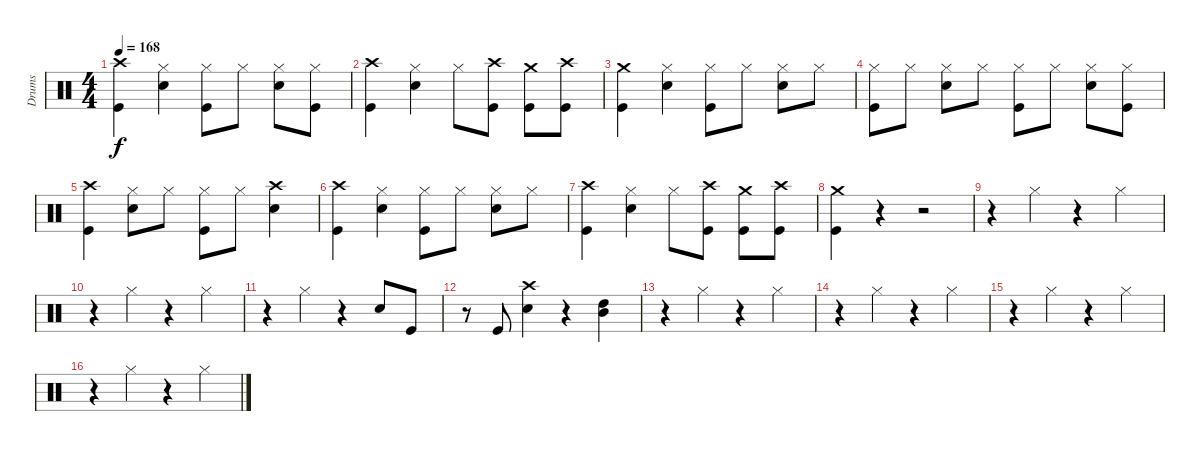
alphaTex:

\track ("Drums" "Drums") {instrument percussion}
\staff {score}
\articulation defaults
\ts (4 4)
\tempo 168
\clef neutral
\ks c
("Crash high (hit)" "Kick (hit)").4{dy f} ("Hi-Hat (closed)" "Electric Snare (hit)").4 ("Hi-Hat (closed)" "Kick (hit)").8 "Hi-Hat (closed)".8 ("Hi-Hat (closed)" "Electric Snare (hit)").8 ("Hi-Hat (closed)" "Kick (hit)").8 |
("Crash high (hit)" "Kick (hit)").4 ("Hi-Hat (closed)" "Electric Snare (hit)").4 "Hi-Hat (closed)".8 ("Crash high (hit)" "Kick (hit)").8 ("Crash medium (hit)" "Kick (hit)").8 ("Crash high (hit)" "Kick (hit)").8 |
("Crash medium (hit)" "Kick (hit)").4 ("Hi-Hat (closed)" "Electric Snare (hit)").4 ("Hi-Hat (closed)" "Kick (hit)").8 "Hi-Hat (closed)".8 ("Hi-Hat (closed)" "Electric Snare (hit)").8 "Hi-Hat (closed)".8 |
("Hi-Hat (closed)" "Kick (hit)").8 "Hi-Hat (closed)".8 ("Hi-Hat (closed)" "Electric Snare (hit)").8 "Hi-Hat (closed)".8 ("Hi-Hat (closed)" "Kick (hit)").8 "Hi-Hat (closed)".8 ("Hi-Hat (closed)" "Electric Snare (hit)").8 ("Hi-Hat (closed)" "Kick (hit)").8 |
("Crash high (hit)" "Kick (hit)").4 ("Hi-Hat (closed)" "Electric Snare (hit)").8 "Hi-Hat (closed)".8 ("Hi-Hat (closed)" "Kick (hit)").8 "Hi-Hat (closed)".8 ("Crash high (hit)" "Electric Snare (hit)").4 |
("Crash high (hit)" "Kick (hit)").4 ("Hi-Hat (closed)" "Electric Snare (hit)").4 ("Hi-Hat (closed)" "Kick (hit)").8 "Hi-Hat (closed)".8 ("Hi-Hat (closed)" "Electric Snare (hit)").8 "Hi-Hat (closed)".8 |
("Crash high (hit)" "Kick (hit)").4 ("Hi-Hat (closed)" "Electric Snare (hit)").4 "Hi-Hat (closed)".8 ("Crash high (hit)" "Kick (hit)").8 ("Crash medium (hit)" "Kick (hit)").8 ("Crash high (hit)" "Kick (hit)").8 |
("Crash medium (hit)" "Kick (hit)").4 r.4 r.2 |
r.4 "Hi-Hat (closed)".4 r.4 "Hi-Hat (closed)".4 |
r.4 "Hi-Hat (closed)".4 r.4 "Hi-Hat (closed)".4 |
r.4 "Hi-Hat (closed)".4 r.4 "Electric Snare (hit)".8 "Kick (hit)".8 |
r.8 "Kick (hit)".8 ("Crash high (hit)" "Electric Snare (hit)").4 r.4 ("High Tom (hit)" "Mid Tom (hit)").4 |
r.4 "Hi-Hat (closed)".4 r.4 "Hi-Hat (closed)".4 |
r.4 "Hi-Hat (closed)".4 r.4 "Hi-Hat (closed)".4 |
r.4 "Hi-Hat (closed)".4 r.4 "Hi-Hat (closed)".4 |
r.4 "Hi-Hat (closed)".4 r.4 "Hi-Hat (closed)".4
